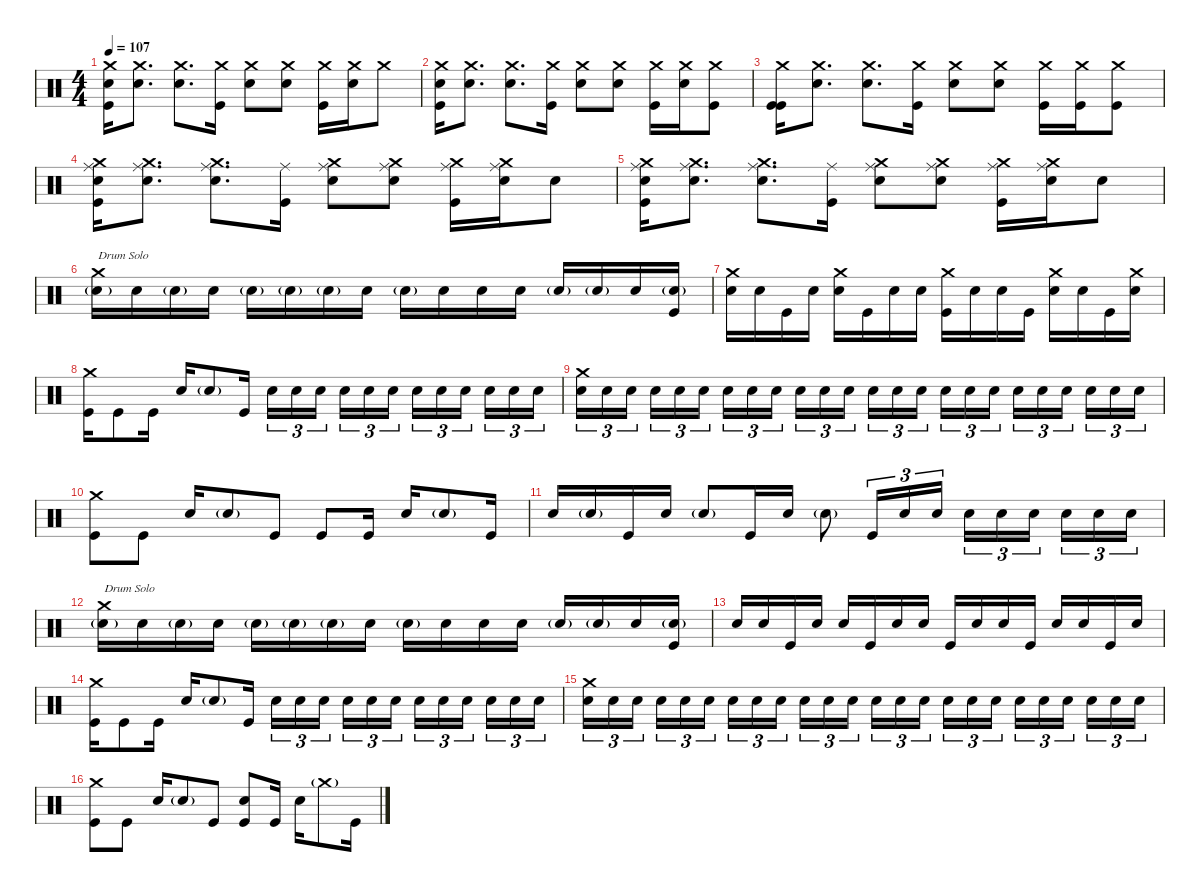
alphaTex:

\defaultSystemsLayout 4
\hideDynamics
\bracketExtendMode nobrackets
\singleTrackTrackNamePolicy hidden
\multiTrackTrackNamePolicy hidden
\firstSystemTrackNameMode fullname
\firstSystemTrackNameOrientation horizontal
\otherSystemsTrackNameOrientation horizontal
\track ("Mitch" "drm.") {instrument percussion}
\staff {score}
\articulation defaults
\ts (4 4)
\tempo 107
\clef neutral
\ks c
("Snare (hit) 2" "Crash medium (hit)" "Kick (hit)").16{dy f beam Down} ("Snare (hit) 2" "Crash medium (hit)").8{d beam Down} ("Snare (hit) 2" "Crash medium (hit)").8{d beam Down} ("Crash medium (hit)" "Kick (hit)").16{beam Down} ("Snare (hit) 2" "Crash medium (hit)").8{beam Down} ("Snare (hit) 2" "Crash medium (hit)").8{beam Down} ("Crash medium (hit)" "Kick (hit)").16{beam Down} ("Snare (hit) 2" "Crash medium (hit)").16{beam Down} "Crash medium (hit)".8{beam Down} |
("Snare (hit) 2" "Crash medium (hit)" "Kick (hit)").16{beam Down} ("Snare (hit) 2" "Crash medium (hit)").8{d beam Down} ("Snare (hit) 2" "Crash medium (hit)").8{d beam Down} ("Crash medium (hit)" "Kick (hit)").16{beam Down} ("Snare (hit) 2" "Crash medium (hit)").8{beam Down} ("Snare (hit) 2" "Crash medium (hit)").8{beam Down} ("Crash medium (hit)" "Kick (hit)").16{beam Down} ("Snare (hit) 2" "Crash medium (hit)").16{beam Down} ("Kick (hit)" "Crash medium (hit)").8{beam Down} |
("Kick (hit)" "Crash medium (hit)" "Kick (hit)").16{beam Down} ("Snare (hit) 2" "Crash medium (hit)").8{d beam Down} ("Snare (hit) 2" "Crash medium (hit)").8{d beam Down} ("Crash medium (hit)" "Kick (hit)").16{beam Down} ("Snare (hit) 2" "Crash medium (hit)").8{beam Down} ("Snare (hit) 2" "Crash medium (hit)").8{beam Down} ("Crash medium (hit)" "Kick (hit)").16{beam Down} ("Kick (hit)" "Crash medium (hit)").16{beam Down} ("Kick (hit)" "Crash medium (hit)").8{beam Down} |
("Ride (middle)" "Snare (hit) 2" "Crash medium (hit)" "Kick (hit)").16{beam Down} ("Ride (middle)" "Snare (hit) 2" "Crash medium (hit)").8{d beam Down} ("Ride (middle)" "Snare (hit) 2" "Crash medium (hit)").8{d beam Down} ("Ride (middle)" "Kick (hit)").16{beam Down} ("Ride (middle)" "Snare (hit) 2" "Crash medium (hit)").8{beam Down} ("Ride (middle)" "Snare (hit) 2" "Crash medium (hit)").8{beam Down} ("Ride (middle)" "Crash medium (hit)" "Kick (hit)").16{beam Down} ("Ride (middle)" "Snare (hit) 2" "Crash medium (hit)").16{beam Down} "Snare (hit) 2".8{beam Down} |
("Ride (middle)" "Snare (hit) 2" "Crash medium (hit)" "Kick (hit)").16{beam Down} ("Ride (middle)" "Snare (hit) 2" "Crash medium (hit)").8{d beam Down} ("Ride (middle)" "Snare (hit) 2" "Crash medium (hit)").8{d beam Down} ("Ride (middle)" "Kick (hit)").16{beam Down} ("Ride (middle)" "Snare (hit) 2" "Crash medium (hit)").8{beam Down} ("Ride (middle)" "Snare (hit) 2" "Crash medium (hit)").8{beam Down} ("Ride (middle)" "Crash medium (hit)" "Kick (hit)").16{beam Down} ("Ride (middle)" "Snare (hit) 2" "Crash medium (hit)").16{beam Down} "Snare (hit) 2".8{beam Down} |
("Crash medium (hit)" "Snare (hit) 2"{g}).16{txt "Drum Solo" beam Down} "Snare (hit) 2".16{beam Down} "Snare (hit) 2"{g}.16{beam Down} "Snare (hit) 2".16{beam Down} "Snare (hit) 2"{g}.16{beam Down} "Snare (hit) 2"{g}.16{beam Down} "Snare (hit) 2"{g}.16{beam Down} "Snare (hit) 2".16{beam Down} "Snare (hit) 2"{g}.16{beam Down} "Snare (hit) 2".16{beam Down} "Snare (hit) 2".16{beam Down} "Snare (hit) 2".16{beam Down} "Snare (hit) 2"{g}.16{beam Up} "Snare (hit) 2"{g}.16{beam Up} "Snare (hit) 2".16{beam Up} ("Snare (hit) 2"{g} "Kick (hit)").16{beam Up} |
("Crash medium (hit)" "Snare (hit) 2").16{beam Down} "Snare (hit) 2".16{beam Down} "Kick (hit)".16{beam Down} "Snare (hit) 2".16{beam Down} ("Crash medium (hit)" "Snare (hit) 2").16{beam Down} "Kick (hit)".16{beam Down} "Snare (hit) 2".16{beam Down} "Snare (hit) 2".16{beam Down} ("Crash medium (hit)" "Kick (hit)").16{beam Down} "Snare (hit) 2".16{beam Down} "Snare (hit) 2".16{beam Down} "Kick (hit)".16{beam Down} ("Crash medium (hit)" "Snare (hit) 2").16{beam Down} "Snare (hit) 2".16{beam Down} "Kick (hit)".16{beam Down} ("Crash medium (hit)" "Snare (hit) 2").16{beam Down} |
("Crash medium (hit)" "Kick (hit)").16{beam Down} "Kick (hit)".8{beam Down} "Kick (hit)".16{beam Down} "Snare (hit) 2".16{beam Up} "Snare (hit) 2"{g}.8{beam Up} "Kick (hit)".16{beam Up} "Snare (hit) 2".16{tu (3 2) beam Down} "Snare (hit) 2".16{tu (3 2) beam Down} "Snare (hit) 2".16{tu (3 2) beam Down} "Snare (hit) 2".16{tu (3 2) beam Down} "Snare (hit) 2".16{tu (3 2) beam Down} "Snare (hit) 2".16{tu (3 2) beam Down} "Snare (hit) 2".16{tu (3 2) beam Down} "Snare (hit) 2".16{tu (3 2) beam Down} "Snare (hit) 2".16{tu (3 2) beam Down} "Snare (hit) 2".16{tu (3 2) beam Down} "Snare (hit) 2".16{tu (3 2) beam Down} "Snare (hit) 2".16{tu (3 2) beam Down} |
("Crash medium (hit)" "Snare (hit) 2").16{tu (3 2) beam Down} "Snare (hit) 2".16{tu (3 2) beam Down} "Snare (hit) 2".16{tu (3 2) beam Down} "Snare (hit) 2".16{tu (3 2) beam Down} "Snare (hit) 2".16{tu (3 2) beam Down} "Snare (hit) 2".16{tu (3 2) beam Down} "Snare (hit) 2".16{tu (3 2) beam Down} "Snare (hit) 2".16{tu (3 2) beam Down} "Snare (hit) 2".16{tu (3 2) beam Down} "Snare (hit) 2".16{tu (3 2) beam Down} "Snare (hit) 2".16{tu (3 2) beam Down} "Snare (hit) 2".16{tu (3 2) beam Down} "Snare (hit) 2".16{tu (3 2) beam Down} "Snare (hit) 2".16{tu (3 2) beam Down} "Snare (hit) 2".16{tu (3 2) beam Down} "Snare (hit) 2".16{tu (3 2) beam Down} "Snare (hit) 2".16{tu (3 2) beam Down} "Snare (hit) 2".16{tu (3 2) beam Down} "Snare (hit) 2".16{tu (3 2) beam Down} "Snare (hit) 2".16{tu (3 2) beam Down} "Snare (hit) 2".16{tu (3 2) beam Down} "Snare (hit) 2".16{tu (3 2) beam Down} "Snare (hit) 2".16{tu (3 2) beam Down} "Snare (hit) 2".16{tu (3 2) beam Down} |
("Crash medium (hit)" "Kick (hit)").8{beam Down} "Kick (hit)".8{beam Down} "Snare (hit) 2".16{beam Up} "Snare (hit) 2"{g}.8{beam Up} "Kick (hit)".8{beam Up} "Kick (hit)".8{beam Up} "Kick (hit)".16{beam Up} "Snare (hit) 2".16{beam Up} "Snare (hit) 2"{g}.8{beam Up} "Kick (hit)".16{beam Up} |
"Snare (hit) 2".16{beam Up} "Snare (hit) 2"{g}.16{beam Up} "Kick (hit)".16{beam Up} "Snare (hit) 2".16{beam Up} "Snare (hit) 2"{g}.8{beam Up} "Kick (hit)".16{beam Up} "Snare (hit) 2".16{beam Up} "Snare (hit) 2"{g}.8{beam Down} "Kick (hit)".16{tu (3 2) beam Up} "Snare (hit) 2".16{tu (3 2) beam Up} "Snare (hit) 2".16{tu (3 2) beam Up} "Snare (hit) 2".16{tu (3 2) beam Down} "Snare (hit) 2".16{tu (3 2) beam Down} "Snare (hit) 2".16{tu (3 2) beam Down} "Snare (hit) 2".16{tu (3 2) beam Down} "Snare (hit) 2".16{tu (3 2) beam Down} "Snare (hit) 2".16{tu (3 2) beam Down} |
("Crash medium (hit)" "Snare (hit) 2"{g}).16{txt "Drum Solo" beam Down} "Snare (hit) 2".16{beam Down} "Snare (hit) 2"{g}.16{beam Down} "Snare (hit) 2".16{beam Down} "Snare (hit) 2"{g}.16{beam Down} "Snare (hit) 2"{g}.16{beam Down} "Snare (hit) 2"{g}.16{beam Down} "Snare (hit) 2".16{beam Down} "Snare (hit) 2"{g}.16{beam Down} "Snare (hit) 2".16{beam Down} "Snare (hit) 2".16{beam Down} "Snare (hit) 2".16{beam Down} "Snare (hit) 2"{g}.16{beam Up} "Snare (hit) 2"{g}.16{beam Up} "Snare (hit) 2".16{beam Up} ("Snare (hit) 2"{g} "Kick (hit)").16{beam Up} |
"Snare (hit) 2".16{beam Up} "Snare (hit) 2".16{beam Up} "Kick (hit)".16{beam Up} "Snare (hit) 2".16{beam Up} "Snare (hit) 2".16{beam Up} "Kick (hit)".16{beam Up} "Snare (hit) 2".16{beam Up} "Snare (hit) 2".16{beam Up} "Kick (hit)".16{beam Up} "Snare (hit) 2".16{beam Up} "Snare (hit) 2".16{beam Up} "Kick (hit)".16{beam Up} "Snare (hit) 2".16{beam Up} "Snare (hit) 2".16{beam Up} "Kick (hit)".16{beam Up} "Snare (hit) 2".16{beam Up} |
("Crash medium (hit)" "Kick (hit)").16{beam Down} "Kick (hit)".8{beam Down} "Kick (hit)".16{beam Down} "Snare (hit) 2".16{beam Up} "Snare (hit) 2"{g}.8{beam Up} "Kick (hit)".16{beam Up} "Snare (hit) 2".16{tu (3 2) beam Down} "Snare (hit) 2".16{tu (3 2) beam Down} "Snare (hit) 2".16{tu (3 2) beam Down} "Snare (hit) 2".16{tu (3 2) beam Down} "Snare (hit) 2".16{tu (3 2) beam Down} "Snare (hit) 2".16{tu (3 2) beam Down} "Snare (hit) 2".16{tu (3 2) beam Down} "Snare (hit) 2".16{tu (3 2) beam Down} "Snare (hit) 2".16{tu (3 2) beam Down} "Snare (hit) 2".16{tu (3 2) beam Down} "Snare (hit) 2".16{tu (3 2) beam Down} "Snare (hit) 2".16{tu (3 2) beam Down} |
("Crash medium (hit)" "Snare (hit) 2").16{tu (3 2) beam Down} "Snare (hit) 2".16{tu (3 2) beam Down} "Snare (hit) 2".16{tu (3 2) beam Down} "Snare (hit) 2".16{tu (3 2) beam Down} "Snare (hit) 2".16{tu (3 2) beam Down} "Snare (hit) 2".16{tu (3 2) beam Down} "Snare (hit) 2".16{tu (3 2) beam Down} "Snare (hit) 2".16{tu (3 2) beam Down} "Snare (hit) 2".16{tu (3 2) beam Down} "Snare (hit) 2".16{tu (3 2) beam Down} "Snare (hit) 2".16{tu (3 2) beam Down} "Snare (hit) 2".16{tu (3 2) beam Down} "Snare (hit) 2".16{tu (3 2) beam Down} "Snare (hit) 2".16{tu (3 2) beam Down} "Snare (hit) 2".16{tu (3 2) beam Down} "Snare (hit) 2".16{tu (3 2) beam Down} "Snare (hit) 2".16{tu (3 2) beam Down} "Snare (hit) 2".16{tu (3 2) beam Down} "Snare (hit) 2".16{tu (3 2) beam Down} "Snare (hit) 2".16{tu (3 2) beam Down} "Snare (hit) 2".16{tu (3 2) beam Down} "Snare (hit) 2".16{tu (3 2) beam Down} "Snare (hit) 2".16{tu (3 2) beam Down} "Snare (hit) 2".16{tu (3 2) beam Down} |
("Crash medium (hit)" "Kick (hit)").8{beam Down} "Kick (hit)".8{beam Down} "Snare (hit) 2".16{beam Up} "Snare (hit) 2"{g}.8{beam Up} "Kick (hit)".8{beam Up} ("Snare (hit) 2" "Kick (hit)").8{beam Up} "Kick (hit)".16{beam Up} "Snare (hit) 2".16{beam Down} "Crash medium (hit)"{g}.8{beam Down} "Kick (hit)".16{beam Down}
